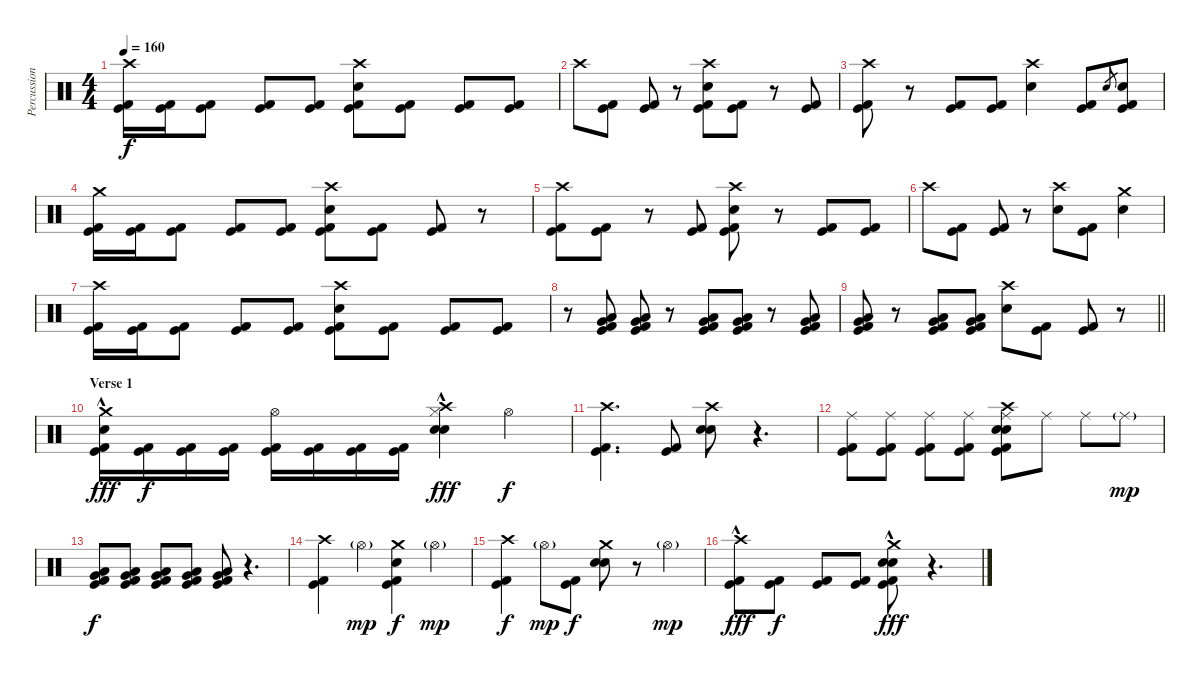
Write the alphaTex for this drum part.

\track ("Percussion" "Percussion") {instrument percussion}
\staff {score}
\articulation defaults
\ts (4 4)
\tempo 160
\clef neutral
\ks c
("Crash high (hit)" "Kick (hit)" "Kick (hit) 2").16{dy f} ("Kick (hit)" "Kick (hit) 2").16 ("Kick (hit)" "Kick (hit) 2").8 ("Kick (hit)" "Kick (hit) 2").8 ("Kick (hit)" "Kick (hit) 2").8 ("Crash high (hit)" "Electric Snare (hit)" "Kick (hit)" "Kick (hit) 2").8 ("Kick (hit)" "Kick (hit) 2").8 ("Kick (hit)" "Kick (hit) 2").8 ("Kick (hit)" "Kick (hit) 2").8 |
"Crash high (hit)".8 ("Kick (hit)" "Kick (hit) 2").8 ("Kick (hit)" "Kick (hit) 2").8 r.8 ("Crash high (hit)" "Electric Snare (hit)" "Kick (hit)" "Kick (hit) 2").8 ("Kick (hit)" "Kick (hit) 2").8 r.8 ("Kick (hit)" "Kick (hit) 2").8 |
("Crash high (hit)" "Kick (hit)" "Kick (hit) 2").8 r.8 ("Kick (hit)" "Kick (hit) 2").8 ("Kick (hit)" "Kick (hit) 2").8 ("Crash high (hit)" "Electric Snare (hit)").4 ("Kick (hit)" "Kick (hit) 2").8 "Electric Snare (hit)".8{gr} ("Electric Snare (hit)" "Kick (hit)" "Kick (hit) 2").8 |
("Crash medium (hit)" "Kick (hit)" "Kick (hit) 2").16 ("Kick (hit)" "Kick (hit) 2").16 ("Kick (hit)" "Kick (hit) 2").8 ("Kick (hit)" "Kick (hit) 2").8 ("Kick (hit)" "Kick (hit) 2").8 ("Crash high (hit)" "Electric Snare (hit)" "Kick (hit)" "Kick (hit) 2").8 ("Kick (hit)" "Kick (hit) 2").8 ("Kick (hit)" "Kick (hit) 2").8 r.8 |
("Crash high (hit)" "Kick (hit)" "Kick (hit) 2").8 ("Kick (hit)" "Kick (hit) 2").8 r.8 ("Kick (hit)" "Kick (hit) 2").8 ("Crash high (hit)" "Electric Snare (hit)" "Kick (hit)" "Kick (hit) 2").8 r.8 ("Kick (hit)" "Kick (hit) 2").8 ("Kick (hit)" "Kick (hit) 2").8 |
"Crash high (hit)".8 ("Kick (hit)" "Kick (hit) 2").8 ("Kick (hit)" "Kick (hit) 2").8 r.8 ("Crash high (hit)" "Electric Snare (hit)").8 ("Kick (hit)" "Kick (hit) 2").8 ("Crash medium (hit)" "Electric Snare (hit)").4 |
("Crash high (hit)" "Kick (hit)" "Kick (hit) 2").16 ("Kick (hit)" "Kick (hit) 2").16 ("Kick (hit)" "Kick (hit) 2").8 ("Kick (hit)" "Kick (hit) 2").8 ("Kick (hit)" "Kick (hit) 2").8 ("Crash high (hit)" "Electric Snare (hit)" "Kick (hit)" "Kick (hit) 2").8 ("Kick (hit)" "Kick (hit) 2").8 ("Kick (hit)" "Kick (hit) 2").8 ("Kick (hit)" "Kick (hit) 2").8 |
r.8 ("Very Low Tom (hit)" "Low Floor Tom (hit)" "Kick (hit)" "Kick (hit) 2").8 ("Very Low Tom (hit)" "Low Floor Tom (hit)" "Kick (hit)" "Kick (hit) 2").8 r.8 ("Very Low Tom (hit)" "Low Floor Tom (hit)" "Kick (hit)" "Kick (hit) 2").8 ("Very Low Tom (hit)" "Low Floor Tom (hit)" "Kick (hit)" "Kick (hit) 2").8 r.8 ("Very Low Tom (hit)" "Low Floor Tom (hit)" "Kick (hit)" "Kick (hit) 2").8 |
\barLineRight lightlight
("Very Low Tom (hit)" "Low Floor Tom (hit)" "Kick (hit)" "Kick (hit) 2").8 r.8 ("Very Low Tom (hit)" "Low Floor Tom (hit)" "Kick (hit)" "Kick (hit) 2").8 ("Very Low Tom (hit)" "Low Floor Tom (hit)" "Kick (hit)" "Kick (hit) 2").8 ("Crash high (hit)" "Electric Snare (hit)").8 ("Kick (hit)" "Kick (hit) 2").8 ("Kick (hit)" "Kick (hit) 2").8 r.8 |
\section ("" "Verse 1")
("Crash medium (hit)"{hac} "Electric Snare (hit)" "Kick (hit)" "Kick (hit) 2").16{dy fff} ("Kick (hit)" "Kick (hit) 2").16{dy f} ("Kick (hit)" "Kick (hit) 2").16 ("Kick (hit)" "Kick (hit) 2").16 ("Hi-Hat (open)" "Kick (hit)" "Kick (hit) 2").16 ("Kick (hit)" "Kick (hit) 2").16 ("Kick (hit)" "Kick (hit) 2").16 ("Kick (hit)" "Kick (hit) 2").16 ("Hi-Hat (closed)" "Crash high (hit)"{hac} "Electric Snare (hit)" "Electric Snare (hit)").4{dy fff} "Hi-Hat (open)".4{dy f} |
("Crash high (hit)" "Kick (hit)" "Kick (hit) 2").4{d} ("Kick (hit)" "Kick (hit) 2").8 ("Crash high (hit)" "Electric Snare (hit)" "Electric Snare (hit)").8 r.4{d} |
("Ride (middle)" "Kick (hit)" "Kick (hit) 2").8 ("Ride (middle)" "Kick (hit)" "Kick (hit) 2").8 ("Ride (middle)" "Kick (hit)" "Kick (hit) 2").8 ("Ride (middle)" "Kick (hit)" "Kick (hit) 2").8 ("Crash high (hit)" "Ride (middle)" "Electric Snare (hit)" "Electric Snare (hit)" "Kick (hit)" "Kick (hit) 2").8 "Ride (middle)".8 "Ride (middle)".8 "Ride (middle)"{g}.8{dy mp} |
("Low Floor Tom (hit)" "Very Low Tom (hit)" "Kick (hit)" "Kick (hit) 2").8{dy f} ("Low Floor Tom (hit)" "Very Low Tom (hit)" "Kick (hit)" "Kick (hit) 2").8 ("Low Floor Tom (hit)" "Very Low Tom (hit)" "Kick (hit)" "Kick (hit) 2").8 ("Low Floor Tom (hit)" "Very Low Tom (hit)" "Kick (hit)" "Kick (hit) 2").8 ("Low Floor Tom (hit)" "Very Low Tom (hit)" "Kick (hit)" "Kick (hit) 2").8 r.4{d} |
("Crash high (hit)" "Kick (hit)" "Kick (hit) 2").4 "Hi-Hat (open)"{g}.4{dy mp} ("Crash medium (hit)" "Electric Snare (hit)" "Kick (hit)" "Kick (hit) 2").4{dy f} "Hi-Hat (open)"{g}.4{dy mp} |
("Crash high (hit)" "Kick (hit)" "Kick (hit) 2").4{dy f} "Hi-Hat (open)"{g}.8{dy mp} ("Kick (hit)" "Kick (hit) 2").8{dy f} ("Crash medium (hit)" "Electric Snare (hit)" "Electric Snare (hit)").8 r.8 "Hi-Hat (open)"{g}.4{dy mp} |
("Crash high (hit)"{hac} "Kick (hit)" "Kick (hit) 2").8{dy fff} ("Kick (hit)" "Kick (hit) 2").8{dy f} ("Kick (hit)" "Kick (hit) 2").8 ("Kick (hit)" "Kick (hit) 2").8 ("Crash medium (hit)"{hac} "Electric Snare (hit)" "Electric Snare (hit)" "Kick (hit)" "Kick (hit) 2").8{dy fff} r.4{d}
